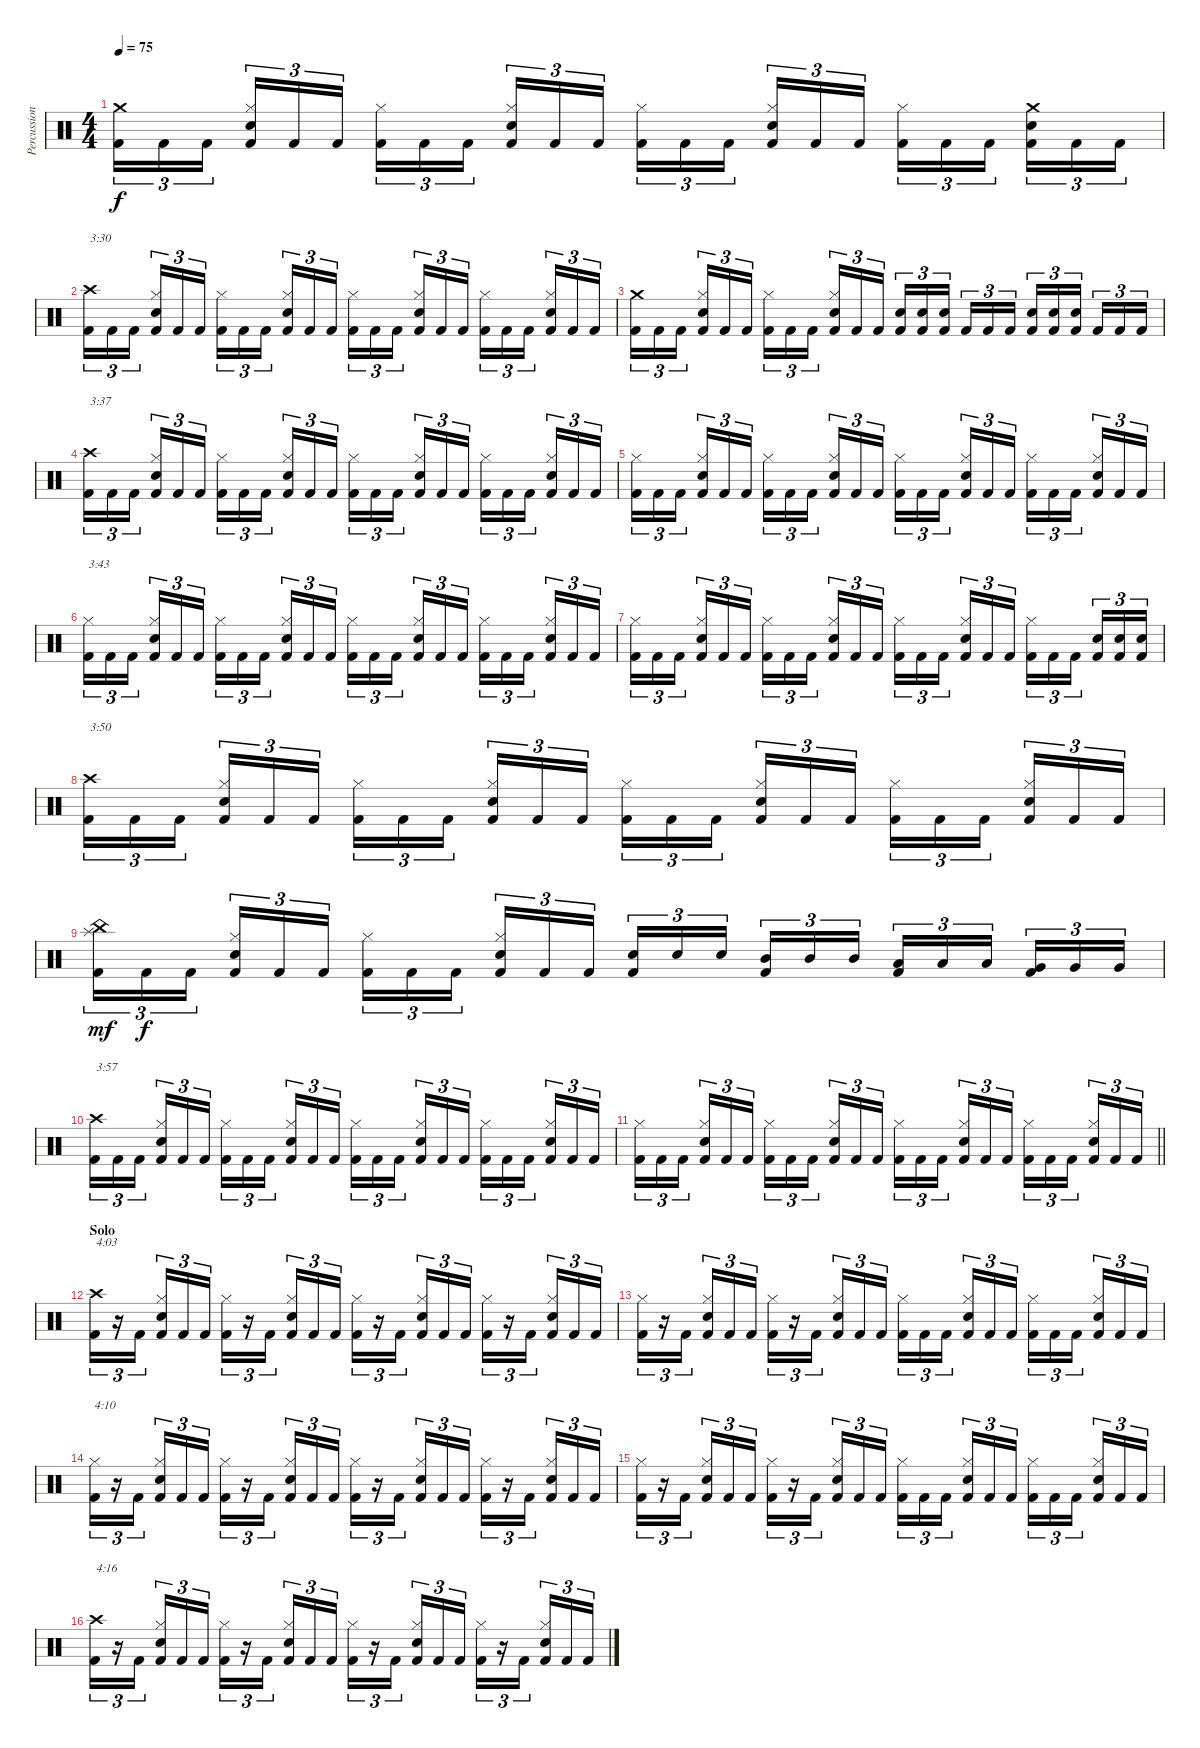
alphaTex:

\track ("Percussion" "Percussion") {instrument percussion}
\staff {score}
\articulation defaults
\ts (4 4)
\tempo 75
\clef neutral
\ks c
("Crash medium (hit)" "Kick (hit) 2").16{tu (3 2) dy f} "Kick (hit) 2".16{tu (3 2)} "Kick (hit) 2".16{tu (3 2)} ("Hi-Hat (closed)" "Snare (hit) 2" "Kick (hit) 2").16{tu (3 2)} "Kick (hit) 2".16{tu (3 2)} "Kick (hit) 2".16{tu (3 2)} ("Hi-Hat (closed)" "Kick (hit) 2").16{tu (3 2)} "Kick (hit) 2".16{tu (3 2)} "Kick (hit) 2".16{tu (3 2)} ("Hi-Hat (closed)" "Snare (hit) 2" "Kick (hit) 2").16{tu (3 2)} "Kick (hit) 2".16{tu (3 2)} "Kick (hit) 2".16{tu (3 2)} ("Hi-Hat (closed)" "Kick (hit) 2").16{tu (3 2)} "Kick (hit) 2".16{tu (3 2)} "Kick (hit) 2".16{tu (3 2)} ("Hi-Hat (closed)" "Snare (hit) 2" "Kick (hit) 2").16{tu (3 2)} "Kick (hit) 2".16{tu (3 2)} "Kick (hit) 2".16{tu (3 2)} ("Hi-Hat (closed)" "Kick (hit) 2").16{tu (3 2)} "Kick (hit) 2".16{tu (3 2)} "Kick (hit) 2".16{tu (3 2)} ("Crash medium (hit)" "Snare (hit) 2" "Kick (hit) 2").16{tu (3 2)} "Kick (hit) 2".16{tu (3 2)} "Kick (hit) 2".16{tu (3 2)} |
("Crash high (hit)" "Kick (hit) 2").16{tu (3 2) txt "3:30"} "Kick (hit) 2".16{tu (3 2)} "Kick (hit) 2".16{tu (3 2)} ("Hi-Hat (closed)" "Snare (hit) 2" "Kick (hit) 2").16{tu (3 2)} "Kick (hit) 2".16{tu (3 2)} "Kick (hit) 2".16{tu (3 2)} ("Hi-Hat (closed)" "Kick (hit) 2").16{tu (3 2)} "Kick (hit) 2".16{tu (3 2)} "Kick (hit) 2".16{tu (3 2)} ("Hi-Hat (closed)" "Snare (hit) 2" "Kick (hit) 2").16{tu (3 2)} "Kick (hit) 2".16{tu (3 2)} "Kick (hit) 2".16{tu (3 2)} ("Hi-Hat (closed)" "Kick (hit) 2").16{tu (3 2)} "Kick (hit) 2".16{tu (3 2)} "Kick (hit) 2".16{tu (3 2)} ("Hi-Hat (closed)" "Snare (hit) 2" "Kick (hit) 2").16{tu (3 2)} "Kick (hit) 2".16{tu (3 2)} "Kick (hit) 2".16{tu (3 2)} ("Hi-Hat (closed)" "Kick (hit) 2").16{tu (3 2)} "Kick (hit) 2".16{tu (3 2)} "Kick (hit) 2".16{tu (3 2)} ("Hi-Hat (closed)" "Snare (hit) 2" "Kick (hit) 2").16{tu (3 2)} "Kick (hit) 2".16{tu (3 2)} "Kick (hit) 2".16{tu (3 2)} |
("Crash medium (hit)" "Kick (hit) 2").16{tu (3 2)} "Kick (hit) 2".16{tu (3 2)} "Kick (hit) 2".16{tu (3 2)} ("Hi-Hat (closed)" "Snare (hit) 2" "Kick (hit) 2").16{tu (3 2)} "Kick (hit) 2".16{tu (3 2)} "Kick (hit) 2".16{tu (3 2)} ("Hi-Hat (closed)" "Kick (hit) 2").16{tu (3 2)} "Kick (hit) 2".16{tu (3 2)} "Kick (hit) 2".16{tu (3 2)} ("Hi-Hat (closed)" "Snare (hit) 2" "Kick (hit) 2").16{tu (3 2)} "Kick (hit) 2".16{tu (3 2)} "Kick (hit) 2".16{tu (3 2)} ("Snare (hit) 2" "Kick (hit) 2").16{tu (3 2)} ("Snare (hit) 2" "Kick (hit) 2").16{tu (3 2)} ("Snare (hit) 2" "Kick (hit) 2").16{tu (3 2)} "Kick (hit) 2".16{tu (3 2)} "Kick (hit) 2".16{tu (3 2)} "Kick (hit) 2".16{tu (3 2)} ("Snare (hit) 2" "Kick (hit) 2").16{tu (3 2)} ("Snare (hit) 2" "Kick (hit) 2").16{tu (3 2)} ("Snare (hit) 2" "Kick (hit) 2").16{tu (3 2)} "Kick (hit) 2".16{tu (3 2)} "Kick (hit) 2".16{tu (3 2)} "Kick (hit) 2".16{tu (3 2)} |
("Crash high (hit)" "Kick (hit) 2").16{tu (3 2) txt "3:37"} "Kick (hit) 2".16{tu (3 2)} "Kick (hit) 2".16{tu (3 2)} ("Hi-Hat (closed)" "Snare (hit) 2" "Kick (hit) 2").16{tu (3 2)} "Kick (hit) 2".16{tu (3 2)} "Kick (hit) 2".16{tu (3 2)} ("Hi-Hat (closed)" "Kick (hit) 2").16{tu (3 2)} "Kick (hit) 2".16{tu (3 2)} "Kick (hit) 2".16{tu (3 2)} ("Hi-Hat (closed)" "Snare (hit) 2" "Kick (hit) 2").16{tu (3 2)} "Kick (hit) 2".16{tu (3 2)} "Kick (hit) 2".16{tu (3 2)} ("Hi-Hat (closed)" "Kick (hit) 2").16{tu (3 2)} "Kick (hit) 2".16{tu (3 2)} "Kick (hit) 2".16{tu (3 2)} ("Hi-Hat (closed)" "Snare (hit) 2" "Kick (hit) 2").16{tu (3 2)} "Kick (hit) 2".16{tu (3 2)} "Kick (hit) 2".16{tu (3 2)} ("Hi-Hat (closed)" "Kick (hit) 2").16{tu (3 2)} "Kick (hit) 2".16{tu (3 2)} "Kick (hit) 2".16{tu (3 2)} ("Hi-Hat (closed)" "Snare (hit) 2" "Kick (hit) 2").16{tu (3 2)} "Kick (hit) 2".16{tu (3 2)} "Kick (hit) 2".16{tu (3 2)} |
("Hi-Hat (closed)" "Kick (hit) 2").16{tu (3 2)} "Kick (hit) 2".16{tu (3 2)} "Kick (hit) 2".16{tu (3 2)} ("Hi-Hat (closed)" "Snare (hit) 2" "Kick (hit) 2").16{tu (3 2)} "Kick (hit) 2".16{tu (3 2)} "Kick (hit) 2".16{tu (3 2)} ("Hi-Hat (closed)" "Kick (hit) 2").16{tu (3 2)} "Kick (hit) 2".16{tu (3 2)} "Kick (hit) 2".16{tu (3 2)} ("Hi-Hat (closed)" "Snare (hit) 2" "Kick (hit) 2").16{tu (3 2)} "Kick (hit) 2".16{tu (3 2)} "Kick (hit) 2".16{tu (3 2)} ("Hi-Hat (closed)" "Kick (hit) 2").16{tu (3 2)} "Kick (hit) 2".16{tu (3 2)} "Kick (hit) 2".16{tu (3 2)} ("Hi-Hat (closed)" "Snare (hit) 2" "Kick (hit) 2").16{tu (3 2)} "Kick (hit) 2".16{tu (3 2)} "Kick (hit) 2".16{tu (3 2)} ("Hi-Hat (closed)" "Kick (hit) 2").16{tu (3 2)} "Kick (hit) 2".16{tu (3 2)} "Kick (hit) 2".16{tu (3 2)} ("Hi-Hat (closed)" "Snare (hit) 2" "Kick (hit) 2").16{tu (3 2)} "Kick (hit) 2".16{tu (3 2)} "Kick (hit) 2".16{tu (3 2)} |
("Hi-Hat (closed)" "Kick (hit) 2").16{tu (3 2) txt "3:43"} "Kick (hit) 2".16{tu (3 2)} "Kick (hit) 2".16{tu (3 2)} ("Hi-Hat (closed)" "Snare (hit) 2" "Kick (hit) 2").16{tu (3 2)} "Kick (hit) 2".16{tu (3 2)} "Kick (hit) 2".16{tu (3 2)} ("Hi-Hat (closed)" "Kick (hit) 2").16{tu (3 2)} "Kick (hit) 2".16{tu (3 2)} "Kick (hit) 2".16{tu (3 2)} ("Hi-Hat (closed)" "Snare (hit) 2" "Kick (hit) 2").16{tu (3 2)} "Kick (hit) 2".16{tu (3 2)} "Kick (hit) 2".16{tu (3 2)} ("Hi-Hat (closed)" "Kick (hit) 2").16{tu (3 2)} "Kick (hit) 2".16{tu (3 2)} "Kick (hit) 2".16{tu (3 2)} ("Hi-Hat (closed)" "Snare (hit) 2" "Kick (hit) 2").16{tu (3 2)} "Kick (hit) 2".16{tu (3 2)} "Kick (hit) 2".16{tu (3 2)} ("Hi-Hat (closed)" "Kick (hit) 2").16{tu (3 2)} "Kick (hit) 2".16{tu (3 2)} "Kick (hit) 2".16{tu (3 2)} ("Hi-Hat (closed)" "Snare (hit) 2" "Kick (hit) 2").16{tu (3 2)} "Kick (hit) 2".16{tu (3 2)} "Kick (hit) 2".16{tu (3 2)} |
("Hi-Hat (closed)" "Kick (hit) 2").16{tu (3 2)} "Kick (hit) 2".16{tu (3 2)} "Kick (hit) 2".16{tu (3 2)} ("Hi-Hat (closed)" "Snare (hit) 2" "Kick (hit) 2").16{tu (3 2)} "Kick (hit) 2".16{tu (3 2)} "Kick (hit) 2".16{tu (3 2)} ("Hi-Hat (closed)" "Kick (hit) 2").16{tu (3 2)} "Kick (hit) 2".16{tu (3 2)} "Kick (hit) 2".16{tu (3 2)} ("Hi-Hat (closed)" "Snare (hit) 2" "Kick (hit) 2").16{tu (3 2)} "Kick (hit) 2".16{tu (3 2)} "Kick (hit) 2".16{tu (3 2)} ("Hi-Hat (closed)" "Kick (hit) 2").16{tu (3 2)} "Kick (hit) 2".16{tu (3 2)} "Kick (hit) 2".16{tu (3 2)} ("Hi-Hat (closed)" "Snare (hit) 2" "Kick (hit) 2").16{tu (3 2)} "Kick (hit) 2".16{tu (3 2)} "Kick (hit) 2".16{tu (3 2)} ("Hi-Hat (closed)" "Kick (hit) 2").16{tu (3 2)} "Kick (hit) 2".16{tu (3 2)} "Kick (hit) 2".16{tu (3 2)} ("Snare (hit) 2" "Kick (hit) 2").16{tu (3 2)} ("Snare (hit) 2" "Kick (hit) 2").16{tu (3 2)} ("Snare (hit) 2" "Kick (hit) 2").16{tu (3 2)} |
("Crash high (hit)" "Kick (hit) 2").16{tu (3 2) txt "3:50"} "Kick (hit) 2".16{tu (3 2)} "Kick (hit) 2".16{tu (3 2)} ("Hi-Hat (closed)" "Snare (hit) 2" "Kick (hit) 2").16{tu (3 2)} "Kick (hit) 2".16{tu (3 2)} "Kick (hit) 2".16{tu (3 2)} ("Hi-Hat (closed)" "Kick (hit) 2").16{tu (3 2)} "Kick (hit) 2".16{tu (3 2)} "Kick (hit) 2".16{tu (3 2)} ("Hi-Hat (closed)" "Snare (hit) 2" "Kick (hit) 2").16{tu (3 2)} "Kick (hit) 2".16{tu (3 2)} "Kick (hit) 2".16{tu (3 2)} ("Hi-Hat (closed)" "Kick (hit) 2").16{tu (3 2)} "Kick (hit) 2".16{tu (3 2)} "Kick (hit) 2".16{tu (3 2)} ("Hi-Hat (closed)" "Snare (hit) 2" "Kick (hit) 2").16{tu (3 2)} "Kick (hit) 2".16{tu (3 2)} "Kick (hit) 2".16{tu (3 2)} ("Hi-Hat (closed)" "Kick (hit) 2").16{tu (3 2)} "Kick (hit) 2".16{tu (3 2)} "Kick (hit) 2".16{tu (3 2)} ("Hi-Hat (closed)" "Snare (hit) 2" "Kick (hit) 2").16{tu (3 2)} "Kick (hit) 2".16{tu (3 2)} "Kick (hit) 2".16{tu (3 2)} |
("China (hit)" "Splash (hit)" "Kick (hit) 2").16{tu (3 2) dy mf} "Kick (hit) 2".16{tu (3 2) dy f} "Kick (hit) 2".16{tu (3 2)} ("Hi-Hat (closed)" "Snare (hit) 2" "Kick (hit) 2").16{tu (3 2)} "Kick (hit) 2".16{tu (3 2)} "Kick (hit) 2".16{tu (3 2)} ("Hi-Hat (closed)" "Kick (hit) 2").16{tu (3 2)} "Kick (hit) 2".16{tu (3 2)} "Kick (hit) 2".16{tu (3 2)} ("Hi-Hat (closed)" "Snare (hit) 2" "Kick (hit) 2").16{tu (3 2)} "Kick (hit) 2".16{tu (3 2)} "Kick (hit) 2".16{tu (3 2)} ("Snare (hit) 2" "Kick (hit) 2").16{tu (3 2)} "Snare (hit) 2".16{tu (3 2)} "Snare (hit) 2".16{tu (3 2)} ("Mid Tom (hit)" "Kick (hit) 2").16{tu (3 2)} "Mid Tom (hit)".16{tu (3 2)} "Mid Tom (hit)".16{tu (3 2)} ("Low Tom (hit)" "Kick (hit) 2").16{tu (3 2)} "Low Tom (hit)".16{tu (3 2)} "Low Tom (hit)".16{tu (3 2)} ("Very Low Tom (hit)" "Kick (hit) 2").16{tu (3 2)} "Very Low Tom (hit)".16{tu (3 2)} "Very Low Tom (hit)".16{tu (3 2)} |
("Crash high (hit)" "Kick (hit) 2").16{tu (3 2) txt "3:57"} "Kick (hit) 2".16{tu (3 2)} "Kick (hit) 2".16{tu (3 2)} ("Hi-Hat (closed)" "Snare (hit) 2" "Kick (hit) 2").16{tu (3 2)} "Kick (hit) 2".16{tu (3 2)} "Kick (hit) 2".16{tu (3 2)} ("Hi-Hat (closed)" "Kick (hit) 2").16{tu (3 2)} "Kick (hit) 2".16{tu (3 2)} "Kick (hit) 2".16{tu (3 2)} ("Hi-Hat (closed)" "Snare (hit) 2" "Kick (hit) 2").16{tu (3 2)} "Kick (hit) 2".16{tu (3 2)} "Kick (hit) 2".16{tu (3 2)} ("Hi-Hat (closed)" "Kick (hit) 2").16{tu (3 2)} "Kick (hit) 2".16{tu (3 2)} "Kick (hit) 2".16{tu (3 2)} ("Hi-Hat (closed)" "Snare (hit) 2" "Kick (hit) 2").16{tu (3 2)} "Kick (hit) 2".16{tu (3 2)} "Kick (hit) 2".16{tu (3 2)} ("Hi-Hat (closed)" "Kick (hit) 2").16{tu (3 2)} "Kick (hit) 2".16{tu (3 2)} "Kick (hit) 2".16{tu (3 2)} ("Hi-Hat (closed)" "Snare (hit) 2" "Kick (hit) 2").16{tu (3 2)} "Kick (hit) 2".16{tu (3 2)} "Kick (hit) 2".16{tu (3 2)} |
\barLineRight lightlight
("Hi-Hat (closed)" "Kick (hit) 2").16{tu (3 2)} "Kick (hit) 2".16{tu (3 2)} "Kick (hit) 2".16{tu (3 2)} ("Hi-Hat (closed)" "Snare (hit) 2" "Kick (hit) 2").16{tu (3 2)} "Kick (hit) 2".16{tu (3 2)} "Kick (hit) 2".16{tu (3 2)} ("Hi-Hat (closed)" "Kick (hit) 2").16{tu (3 2)} "Kick (hit) 2".16{tu (3 2)} "Kick (hit) 2".16{tu (3 2)} ("Hi-Hat (closed)" "Snare (hit) 2" "Kick (hit) 2").16{tu (3 2)} "Kick (hit) 2".16{tu (3 2)} "Kick (hit) 2".16{tu (3 2)} ("Hi-Hat (closed)" "Kick (hit) 2").16{tu (3 2)} "Kick (hit) 2".16{tu (3 2)} "Kick (hit) 2".16{tu (3 2)} ("Hi-Hat (closed)" "Snare (hit) 2" "Kick (hit) 2").16{tu (3 2)} "Kick (hit) 2".16{tu (3 2)} "Kick (hit) 2".16{tu (3 2)} ("Hi-Hat (closed)" "Kick (hit) 2").16{tu (3 2)} "Kick (hit) 2".16{tu (3 2)} "Kick (hit) 2".16{tu (3 2)} ("Hi-Hat (closed)" "Snare (hit) 2" "Kick (hit) 2").16{tu (3 2)} "Kick (hit) 2".16{tu (3 2)} "Kick (hit) 2".16{tu (3 2)} |
\section ("" "Solo")
("Crash high (hit)" "Kick (hit) 2").16{tu (3 2) txt "4:03"} r.16{tu (3 2)} "Kick (hit) 2".16{tu (3 2)} ("Hi-Hat (closed)" "Snare (hit) 2" "Kick (hit) 2").16{tu (3 2)} "Kick (hit) 2".16{tu (3 2)} "Kick (hit) 2".16{tu (3 2)} ("Hi-Hat (closed)" "Kick (hit) 2").16{tu (3 2)} r.16{tu (3 2)} "Kick (hit) 2".16{tu (3 2)} ("Hi-Hat (closed)" "Snare (hit) 2" "Kick (hit) 2").16{tu (3 2)} "Kick (hit) 2".16{tu (3 2)} "Kick (hit) 2".16{tu (3 2)} ("Hi-Hat (closed)" "Kick (hit) 2").16{tu (3 2)} r.16{tu (3 2)} "Kick (hit) 2".16{tu (3 2)} ("Hi-Hat (closed)" "Snare (hit) 2" "Kick (hit) 2").16{tu (3 2)} "Kick (hit) 2".16{tu (3 2)} "Kick (hit) 2".16{tu (3 2)} ("Hi-Hat (closed)" "Kick (hit) 2").16{tu (3 2)} r.16{tu (3 2)} "Kick (hit) 2".16{tu (3 2)} ("Hi-Hat (closed)" "Snare (hit) 2" "Kick (hit) 2").16{tu (3 2)} "Kick (hit) 2".16{tu (3 2)} "Kick (hit) 2".16{tu (3 2)} |
("Hi-Hat (closed)" "Kick (hit) 2").16{tu (3 2)} r.16{tu (3 2)} "Kick (hit) 2".16{tu (3 2)} ("Hi-Hat (closed)" "Snare (hit) 2" "Kick (hit) 2").16{tu (3 2)} "Kick (hit) 2".16{tu (3 2)} "Kick (hit) 2".16{tu (3 2)} ("Hi-Hat (closed)" "Kick (hit) 2").16{tu (3 2)} r.16{tu (3 2)} "Kick (hit) 2".16{tu (3 2)} ("Hi-Hat (closed)" "Snare (hit) 2" "Kick (hit) 2").16{tu (3 2)} "Kick (hit) 2".16{tu (3 2)} "Kick (hit) 2".16{tu (3 2)} ("Hi-Hat (closed)" "Kick (hit) 2").16{tu (3 2)} "Kick (hit) 2".16{tu (3 2)} "Kick (hit) 2".16{tu (3 2)} ("Hi-Hat (closed)" "Snare (hit) 2" "Kick (hit) 2").16{tu (3 2)} "Kick (hit) 2".16{tu (3 2)} "Kick (hit) 2".16{tu (3 2)} ("Hi-Hat (closed)" "Kick (hit) 2").16{tu (3 2)} "Kick (hit) 2".16{tu (3 2)} "Kick (hit) 2".16{tu (3 2)} ("Hi-Hat (closed)" "Snare (hit) 2" "Kick (hit) 2").16{tu (3 2)} "Kick (hit) 2".16{tu (3 2)} "Kick (hit) 2".16{tu (3 2)} |
("Hi-Hat (closed)" "Kick (hit) 2").16{tu (3 2) txt "4:10"} r.16{tu (3 2)} "Kick (hit) 2".16{tu (3 2)} ("Hi-Hat (closed)" "Snare (hit) 2" "Kick (hit) 2").16{tu (3 2)} "Kick (hit) 2".16{tu (3 2)} "Kick (hit) 2".16{tu (3 2)} ("Hi-Hat (closed)" "Kick (hit) 2").16{tu (3 2)} r.16{tu (3 2)} "Kick (hit) 2".16{tu (3 2)} ("Hi-Hat (closed)" "Snare (hit) 2" "Kick (hit) 2").16{tu (3 2)} "Kick (hit) 2".16{tu (3 2)} "Kick (hit) 2".16{tu (3 2)} ("Hi-Hat (closed)" "Kick (hit) 2").16{tu (3 2)} r.16{tu (3 2)} "Kick (hit) 2".16{tu (3 2)} ("Hi-Hat (closed)" "Snare (hit) 2" "Kick (hit) 2").16{tu (3 2)} "Kick (hit) 2".16{tu (3 2)} "Kick (hit) 2".16{tu (3 2)} ("Hi-Hat (closed)" "Kick (hit) 2").16{tu (3 2)} r.16{tu (3 2)} "Kick (hit) 2".16{tu (3 2)} ("Hi-Hat (closed)" "Snare (hit) 2" "Kick (hit) 2").16{tu (3 2)} "Kick (hit) 2".16{tu (3 2)} "Kick (hit) 2".16{tu (3 2)} |
("Hi-Hat (closed)" "Kick (hit) 2").16{tu (3 2)} r.16{tu (3 2)} "Kick (hit) 2".16{tu (3 2)} ("Hi-Hat (closed)" "Snare (hit) 2" "Kick (hit) 2").16{tu (3 2)} "Kick (hit) 2".16{tu (3 2)} "Kick (hit) 2".16{tu (3 2)} ("Hi-Hat (closed)" "Kick (hit) 2").16{tu (3 2)} r.16{tu (3 2)} "Kick (hit) 2".16{tu (3 2)} ("Hi-Hat (closed)" "Snare (hit) 2" "Kick (hit) 2").16{tu (3 2)} "Kick (hit) 2".16{tu (3 2)} "Kick (hit) 2".16{tu (3 2)} ("Hi-Hat (closed)" "Kick (hit) 2").16{tu (3 2)} "Kick (hit) 2".16{tu (3 2)} "Kick (hit) 2".16{tu (3 2)} ("Hi-Hat (closed)" "Snare (hit) 2" "Kick (hit) 2").16{tu (3 2)} "Kick (hit) 2".16{tu (3 2)} "Kick (hit) 2".16{tu (3 2)} ("Hi-Hat (closed)" "Kick (hit) 2").16{tu (3 2)} "Kick (hit) 2".16{tu (3 2)} "Kick (hit) 2".16{tu (3 2)} ("Hi-Hat (closed)" "Snare (hit) 2" "Kick (hit) 2").16{tu (3 2)} "Kick (hit) 2".16{tu (3 2)} "Kick (hit) 2".16{tu (3 2)} |
("Crash high (hit)" "Kick (hit) 2").16{tu (3 2) txt "4:16"} r.16{tu (3 2)} "Kick (hit) 2".16{tu (3 2)} ("Hi-Hat (closed)" "Snare (hit) 2" "Kick (hit) 2").16{tu (3 2)} "Kick (hit) 2".16{tu (3 2)} "Kick (hit) 2".16{tu (3 2)} ("Hi-Hat (closed)" "Kick (hit) 2").16{tu (3 2)} r.16{tu (3 2)} "Kick (hit) 2".16{tu (3 2)} ("Hi-Hat (closed)" "Snare (hit) 2" "Kick (hit) 2").16{tu (3 2)} "Kick (hit) 2".16{tu (3 2)} "Kick (hit) 2".16{tu (3 2)} ("Hi-Hat (closed)" "Kick (hit) 2").16{tu (3 2)} r.16{tu (3 2)} "Kick (hit) 2".16{tu (3 2)} ("Hi-Hat (closed)" "Snare (hit) 2" "Kick (hit) 2").16{tu (3 2)} "Kick (hit) 2".16{tu (3 2)} "Kick (hit) 2".16{tu (3 2)} ("Hi-Hat (closed)" "Kick (hit) 2").16{tu (3 2)} r.16{tu (3 2)} "Kick (hit) 2".16{tu (3 2)} ("Hi-Hat (closed)" "Snare (hit) 2" "Kick (hit) 2").16{tu (3 2)} "Kick (hit) 2".16{tu (3 2)} "Kick (hit) 2".16{tu (3 2)}
